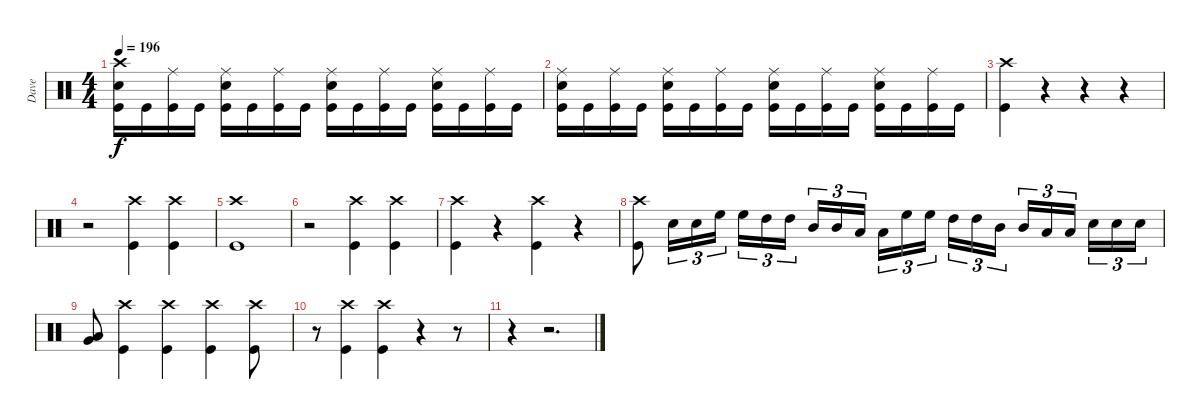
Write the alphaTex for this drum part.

\track ("Dave" "Dave") {instrument percussion}
\staff {score}
\articulation defaults
\ts (4 4)
\tempo 196
\clef neutral
\ks c
("Crash high (hit)" "Snare (hit) 2" "Kick (hit)").16{dy f} "Kick (hit)".16 ("Ride (middle)" "Kick (hit)").16 "Kick (hit)".16 ("Ride (middle)" "Snare (hit) 2" "Kick (hit)").16 "Kick (hit)".16 ("Ride (middle)" "Kick (hit)").16 "Kick (hit)".16 ("Ride (middle)" "Snare (hit) 2" "Kick (hit)").16 "Kick (hit)".16 ("Ride (middle)" "Kick (hit)").16 "Kick (hit)".16 ("Ride (middle)" "Snare (hit) 2" "Kick (hit)").16 "Kick (hit)".16 ("Ride (middle)" "Kick (hit)").16 "Kick (hit)".16 |
("Ride (middle)" "Snare (hit) 2" "Kick (hit)").16 "Kick (hit)".16 ("Ride (middle)" "Kick (hit)").16 "Kick (hit)".16 ("Ride (middle)" "Snare (hit) 2" "Kick (hit)").16 "Kick (hit)".16 ("Ride (middle)" "Kick (hit)").16 "Kick (hit)".16 ("Ride (middle)" "Snare (hit) 2" "Kick (hit)").16 "Kick (hit)".16 ("Ride (middle)" "Kick (hit)").16 "Kick (hit)".16 ("Ride (middle)" "Snare (hit) 2" "Kick (hit)").16 "Kick (hit)".16 ("Ride (middle)" "Kick (hit)").16 "Kick (hit)".16 |
("Crash high (hit)" "Kick (hit)").4 r.4 r.4 r.4 |
r.2 ("Crash high (hit)" "Kick (hit)").4 ("Crash high (hit)" "Kick (hit)").4 |
("Crash high (hit)" "Kick (hit)").1 |
r.2 ("Crash high (hit)" "Kick (hit)").4 ("Crash high (hit)" "Kick (hit)").4 |
("Crash high (hit)" "Kick (hit)").4 r.4 ("Crash high (hit)" "Kick (hit)").4 r.4 |
("Crash high (hit)" "Kick (hit)").8 "Snare (hit) 2".16{tu (3 2)} "Snare (hit) 2".16{tu (3 2)} "High Floor Tom (hit)".16{tu (3 2)} "High Floor Tom (hit)".16{tu (3 2)} "High Tom (hit)".16{tu (3 2)} "High Tom (hit)".16{tu (3 2)} "Mid Tom (hit)".16{tu (3 2)} "Mid Tom (hit)".16{tu (3 2)} "Low Tom (hit)".16{tu (3 2)} "Low Tom (hit)".16{tu (3 2)} "High Floor Tom (hit)".16{tu (3 2)} "High Floor Tom (hit)".16{tu (3 2)} "High Tom (hit)".16{tu (3 2)} "High Tom (hit)".16{tu (3 2)} "Mid Tom (hit)".16{tu (3 2)} "Mid Tom (hit)".16{tu (3 2)} "Low Tom (hit)".16{tu (3 2)} "Low Tom (hit)".16{tu (3 2)} "Snare (hit) 2".16{tu (3 2)} "Snare (hit) 2".16{tu (3 2)} "Snare (hit) 2".16{tu (3 2)} |
("Low Floor Tom (hit)" "Very Low Tom (hit)").8 ("Crash high (hit)" "Kick (hit)").4 ("Crash high (hit)" "Kick (hit)").4 ("Crash high (hit)" "Kick (hit)").4 ("Crash high (hit)" "Kick (hit)").8 |
r.8 ("Crash high (hit)" "Kick (hit)").4 ("Crash high (hit)" "Kick (hit)").4 r.4 r.8 |
r.4 r.2{d}
